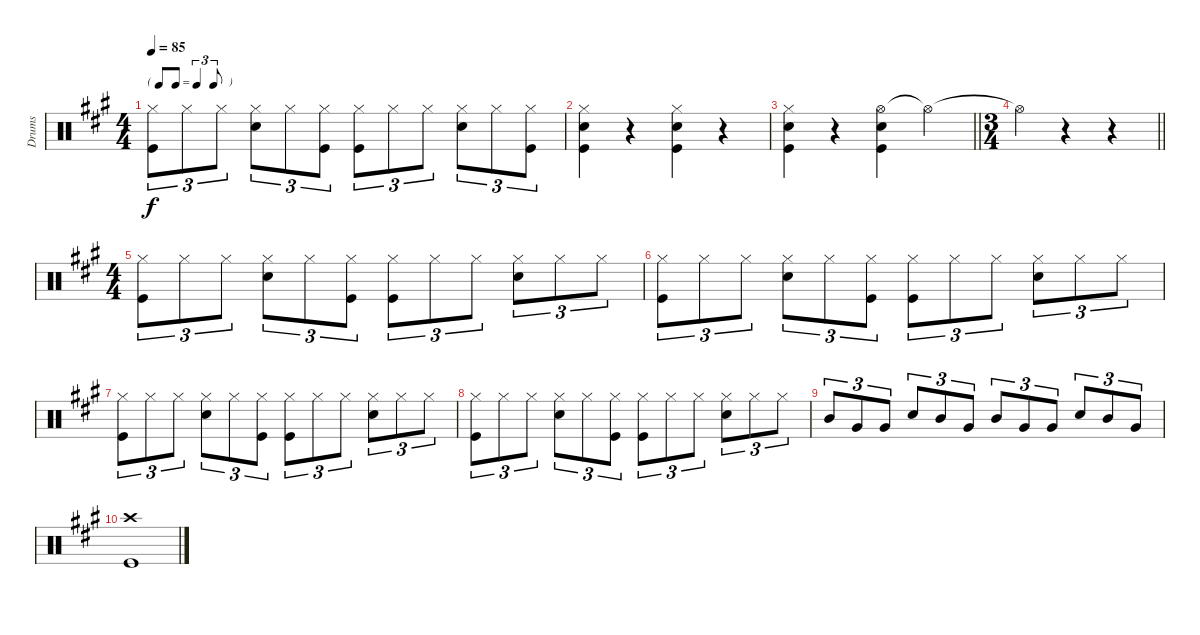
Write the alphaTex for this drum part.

\track ("Drums" "Drums") {instrument percussion}
\staff {score}
\articulation defaults
\ts (4 4)
\tf triplet8th
\tempo 85
\clef neutral
\ks a
("Hi-Hat (closed)" "Kick (hit)").8{tu (3 2) dy f} "Hi-Hat (closed)".8{tu (3 2)} "Hi-Hat (closed)".8{tu (3 2)} ("Hi-Hat (closed)" "Snare (hit) 2").8{tu (3 2)} "Hi-Hat (closed)".8{tu (3 2)} ("Hi-Hat (closed)" "Kick (hit)").8{tu (3 2)} ("Hi-Hat (closed)" "Kick (hit)").8{tu (3 2)} "Hi-Hat (closed)".8{tu (3 2)} "Hi-Hat (closed)".8{tu (3 2)} ("Hi-Hat (closed)" "Snare (hit) 2").8{tu (3 2)} "Hi-Hat (closed)".8{tu (3 2)} ("Hi-Hat (closed)" "Kick (hit)").8{tu (3 2)} |
("Kick (hit)" "Snare (hit) 2" "Hi-Hat (closed)").4 r.4 ("Kick (hit)" "Snare (hit) 2" "Hi-Hat (closed)").4 r.4 |
\barLineRight lightlight
("Kick (hit)" "Snare (hit) 2" "Hi-Hat (closed)").4 r.4 ("Hi-Hat (open)" "Snare (hit) 2" "Kick (hit)").4 "Hi-Hat (open)"{t}.4 |
\ts (3 4)
\barLineRight lightlight "Hi-Hat (open)"{t}.4
r.4 r.4 |
\ts (4 4)
("Hi-Hat (closed)" "Kick (hit)").8{tu (3 2)} "Hi-Hat (closed)".8{tu (3 2)} "Hi-Hat (closed)".8{tu (3 2)} ("Hi-Hat (closed)" "Snare (hit) 2").8{tu (3 2)} "Hi-Hat (closed)".8{tu (3 2)} ("Hi-Hat (closed)" "Kick (hit)").8{tu (3 2)} ("Hi-Hat (closed)" "Kick (hit)").8{tu (3 2)} "Hi-Hat (closed)".8{tu (3 2)} "Hi-Hat (closed)".8{tu (3 2)} ("Hi-Hat (closed)" "Snare (hit) 2").8{tu (3 2)} "Hi-Hat (closed)".8{tu (3 2)} "Hi-Hat (closed)".8{tu (3 2)} |
("Hi-Hat (closed)" "Kick (hit)").8{tu (3 2)} "Hi-Hat (closed)".8{tu (3 2)} "Hi-Hat (closed)".8{tu (3 2)} ("Hi-Hat (closed)" "Snare (hit) 2").8{tu (3 2)} "Hi-Hat (closed)".8{tu (3 2)} ("Hi-Hat (closed)" "Kick (hit)").8{tu (3 2)} ("Hi-Hat (closed)" "Kick (hit)").8{tu (3 2)} "Hi-Hat (closed)".8{tu (3 2)} "Hi-Hat (closed)".8{tu (3 2)} ("Hi-Hat (closed)" "Snare (hit) 2").8{tu (3 2)} "Hi-Hat (closed)".8{tu (3 2)} "Hi-Hat (closed)".8{tu (3 2)} |
("Hi-Hat (closed)" "Kick (hit)").8{tu (3 2)} "Hi-Hat (closed)".8{tu (3 2)} "Hi-Hat (closed)".8{tu (3 2)} ("Hi-Hat (closed)" "Snare (hit) 2").8{tu (3 2)} "Hi-Hat (closed)".8{tu (3 2)} ("Hi-Hat (closed)" "Kick (hit)").8{tu (3 2)} ("Hi-Hat (closed)" "Kick (hit)").8{tu (3 2)} "Hi-Hat (closed)".8{tu (3 2)} "Hi-Hat (closed)".8{tu (3 2)} ("Hi-Hat (closed)" "Snare (hit) 2").8{tu (3 2)} "Hi-Hat (closed)".8{tu (3 2)} "Hi-Hat (closed)".8{tu (3 2)} |
("Hi-Hat (closed)" "Kick (hit)").8{tu (3 2)} "Hi-Hat (closed)".8{tu (3 2)} "Hi-Hat (closed)".8{tu (3 2)} ("Hi-Hat (closed)" "Snare (hit) 2").8{tu (3 2)} "Hi-Hat (closed)".8{tu (3 2)} ("Hi-Hat (closed)" "Kick (hit)").8{tu (3 2)} ("Hi-Hat (closed)" "Kick (hit)").8{tu (3 2)} "Hi-Hat (closed)".8{tu (3 2)} "Hi-Hat (closed)".8{tu (3 2)} ("Hi-Hat (closed)" "Snare (hit) 2").8{tu (3 2)} "Hi-Hat (closed)".8{tu (3 2)} "Hi-Hat (closed)".8{tu (3 2)} |
"Mid Tom (hit)".8{tu (3 2)} "Very Low Tom (hit)".8{tu (3 2)} "Very Low Tom (hit)".8{tu (3 2)} "Snare (hit) 2".8{tu (3 2)} "Mid Tom (hit)".8{tu (3 2)} "Very Low Tom (hit)".8{tu (3 2)} "Mid Tom (hit)".8{tu (3 2)} "Very Low Tom (hit)".8{tu (3 2)} "Very Low Tom (hit)".8{tu (3 2)} "Snare (hit) 2".8{tu (3 2)} "Mid Tom (hit)".8{tu (3 2)} "Very Low Tom (hit)".8{tu (3 2)} |
("Kick (hit)" "Crash high (hit)").1
